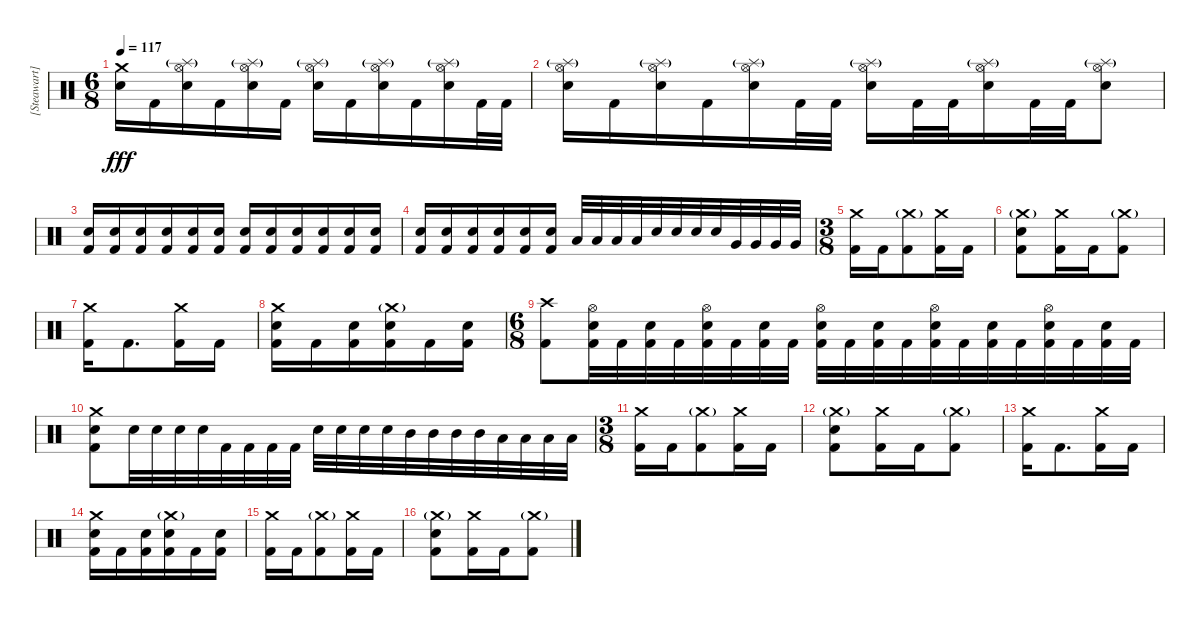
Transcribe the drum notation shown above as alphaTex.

\track ("[Steawart] Drums" "[Steawart]") {instrument percussion}
\staff {score}
\articulation defaults
\ts (6 8)
\tempo 117
\clef neutral
\ks c
("Crash medium (hit)" "Electric Snare (hit)").16{dy fff} "Kick (hit) 2".16 ("Hi-Hat (open)" "Splash (hit)"{g} "Electric Snare (hit)").16 "Kick (hit) 2".16 ("Hi-Hat (open)" "Splash (hit)"{g} "Electric Snare (hit)").16 "Kick (hit) 2".16 ("Hi-Hat (open)" "Splash (hit)"{g} "Electric Snare (hit)").16 "Kick (hit) 2".16 ("Hi-Hat (open)" "Splash (hit)"{g} "Electric Snare (hit)").16 "Kick (hit) 2".16 ("Hi-Hat (open)" "Splash (hit)"{g} "Electric Snare (hit)").16 "Kick (hit) 2".32 "Kick (hit) 2".32 |
("Hi-Hat (open)" "Splash (hit)"{g} "Electric Snare (hit)").16 "Kick (hit) 2".16 ("Hi-Hat (open)" "Splash (hit)"{g} "Electric Snare (hit)").16 "Kick (hit) 2".16 ("Hi-Hat (open)" "Splash (hit)"{g} "Electric Snare (hit)").16 "Kick (hit) 2".32 "Kick (hit) 2".32 ("Hi-Hat (open)" "Splash (hit)"{g} "Electric Snare (hit)").16 "Kick (hit) 2".32 "Kick (hit) 2".32 ("Hi-Hat (open)" "Splash (hit)"{g} "Electric Snare (hit)").16 "Kick (hit) 2".32 "Kick (hit) 2".32 ("Hi-Hat (open)" "Splash (hit)"{g} "Electric Snare (hit)").8 |
("Electric Snare (hit)" "Kick (hit) 2").16 ("Electric Snare (hit)" "Kick (hit) 2").16 ("Electric Snare (hit)" "Kick (hit) 2").16 ("Electric Snare (hit)" "Kick (hit) 2").16 ("Electric Snare (hit)" "Kick (hit) 2").16 ("Electric Snare (hit)" "Kick (hit) 2").16 ("Electric Snare (hit)" "Kick (hit) 2").16 ("Electric Snare (hit)" "Kick (hit) 2").16 ("Electric Snare (hit)" "Kick (hit) 2").16 ("Electric Snare (hit)" "Kick (hit) 2").16 ("Electric Snare (hit)" "Kick (hit) 2").16 ("Electric Snare (hit)" "Kick (hit) 2").16 |
("Electric Snare (hit)" "Kick (hit) 2").16 ("Electric Snare (hit)" "Kick (hit) 2").16 ("Electric Snare (hit)" "Kick (hit) 2").16 ("Electric Snare (hit)" "Kick (hit) 2").16 ("Electric Snare (hit)" "Kick (hit) 2").16 ("Electric Snare (hit)" "Kick (hit) 2").16 "Low Tom (hit)".32 "Low Tom (hit)".32 "Low Tom (hit)".32 "Low Tom (hit)".32 "Electric Snare (hit)".32 "Electric Snare (hit)".32 "Electric Snare (hit)".32 "Electric Snare (hit)".32 "Very Low Tom (hit)".32 "Very Low Tom (hit)".32 "Very Low Tom (hit)".32 "Very Low Tom (hit)".32 |
\ts (3 8)
("Crash medium (hit)" "Kick (hit) 2").16 "Kick (hit) 2".16 ("Crash medium (hit)"{g} "Kick (hit) 2").8 ("Crash medium (hit)" "Kick (hit) 2").16 "Kick (hit) 2".16 |
("Crash medium (hit)"{g} "Electric Snare (hit)" "Kick (hit) 2").8 ("Crash medium (hit)" "Kick (hit) 2").16 "Kick (hit) 2".16 ("Crash medium (hit)"{g} "Kick (hit) 2").8 |
("Crash medium (hit)" "Kick (hit) 2").16 "Kick (hit) 2".8{d} ("Crash medium (hit)" "Kick (hit) 2").16 "Kick (hit) 2".16 |
("Crash medium (hit)" "Electric Snare (hit)" "Kick (hit) 2").16 "Kick (hit) 2".16 ("Electric Snare (hit)" "Kick (hit) 2").16 ("Crash medium (hit)"{g} "Electric Snare (hit)" "Kick (hit) 2").16 "Kick (hit) 2".16 ("Electric Snare (hit)" "Kick (hit) 2").16 |
\ts (6 8)
("Crash high (hit)" "Kick (hit) 2").8 ("Hi-Hat (open)" "Electric Snare (hit)" "Kick (hit) 2").32 "Kick (hit) 2".32 ("Electric Snare (hit)" "Kick (hit) 2").32 "Kick (hit) 2".32 ("Hi-Hat (open)" "Electric Snare (hit)" "Kick (hit) 2").32 "Kick (hit) 2".32 ("Electric Snare (hit)" "Kick (hit) 2").32 "Kick (hit) 2".32 ("Hi-Hat (open)" "Electric Snare (hit)" "Kick (hit) 2").32 "Kick (hit) 2".32 ("Electric Snare (hit)" "Kick (hit) 2").32 "Kick (hit) 2".32 ("Hi-Hat (open)" "Electric Snare (hit)" "Kick (hit) 2").32 "Kick (hit) 2".32 ("Electric Snare (hit)" "Kick (hit) 2").32 "Kick (hit) 2".32 ("Hi-Hat (open)" "Electric Snare (hit)" "Kick (hit) 2").32 "Kick (hit) 2".32 ("Electric Snare (hit)" "Kick (hit) 2").32 "Kick (hit) 2".32 |
("Crash medium (hit)" "Electric Snare (hit)" "Kick (hit) 2").8 "Electric Snare (hit)".32 "Electric Snare (hit)".32 "Electric Snare (hit)".32 "Electric Snare (hit)".32 "Kick (hit) 2".32 "Kick (hit) 2".32 "Kick (hit) 2".32 "Kick (hit) 2".32 "Electric Snare (hit)".32 "Electric Snare (hit)".32 "Electric Snare (hit)".32 "Electric Snare (hit)".32 "Mid Tom (hit)".32 "Mid Tom (hit)".32 "Mid Tom (hit)".32 "Mid Tom (hit)".32 "Low Tom (hit)".32 "Low Tom (hit)".32 "Low Tom (hit)".32 "Low Tom (hit)".32 |
\ts (3 8)
("Crash medium (hit)" "Kick (hit) 2").16 "Kick (hit) 2".16 ("Crash medium (hit)"{g} "Kick (hit) 2").8 ("Crash medium (hit)" "Kick (hit) 2").16 "Kick (hit) 2".16 |
("Crash medium (hit)"{g} "Electric Snare (hit)" "Kick (hit) 2").8 ("Crash medium (hit)" "Kick (hit) 2").16 "Kick (hit) 2".16 ("Crash medium (hit)"{g} "Kick (hit) 2").8 |
("Crash medium (hit)" "Kick (hit) 2").16 "Kick (hit) 2".8{d} ("Crash medium (hit)" "Kick (hit) 2").16 "Kick (hit) 2".16 |
("Crash medium (hit)" "Electric Snare (hit)" "Kick (hit) 2").16 "Kick (hit) 2".16 ("Electric Snare (hit)" "Kick (hit) 2").16 ("Crash medium (hit)"{g} "Electric Snare (hit)" "Kick (hit) 2").16 "Kick (hit) 2".16 ("Electric Snare (hit)" "Kick (hit) 2").16 |
("Crash medium (hit)" "Kick (hit) 2").16 "Kick (hit) 2".16 ("Crash medium (hit)"{g} "Kick (hit) 2").8 ("Crash medium (hit)" "Kick (hit) 2").16 "Kick (hit) 2".16 |
("Crash medium (hit)"{g} "Electric Snare (hit)" "Kick (hit) 2").8 ("Crash medium (hit)" "Kick (hit) 2").16 "Kick (hit) 2".16 ("Crash medium (hit)"{g} "Kick (hit) 2").8
